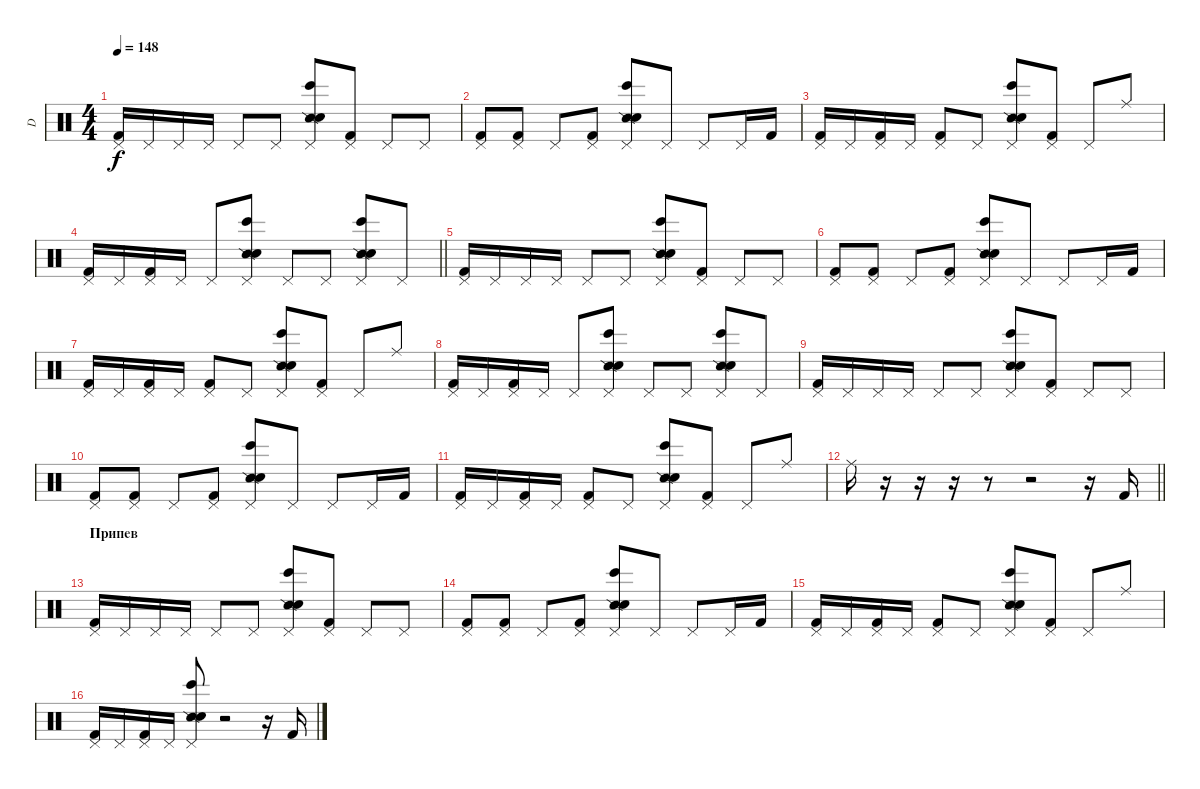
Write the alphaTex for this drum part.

\track ("D" "D") {instrument percussion}
\staff {score}
\articulation defaults
\ts (4 4)
\tempo 148
\clef neutral
\ks c
("Kick (hit) 2" "Pedal Hi-Hat (hit)").16{dy f} "Pedal Hi-Hat (hit)".16 "Pedal Hi-Hat (hit)".16 "Pedal Hi-Hat (hit)".16 "Pedal Hi-Hat (hit)".8 "Pedal Hi-Hat (hit)".8 ("Bongo High (hit)" "Snare (side stick) 2" "Electric Snare (hit)" "Pedal Hi-Hat (hit)").8 ("Kick (hit) 2" "Pedal Hi-Hat (hit)").8 "Pedal Hi-Hat (hit)".8 "Pedal Hi-Hat (hit)".8 |
("Kick (hit) 2" "Pedal Hi-Hat (hit)").8 ("Kick (hit) 2" "Pedal Hi-Hat (hit)").8 "Pedal Hi-Hat (hit)".8 ("Kick (hit) 2" "Pedal Hi-Hat (hit)").8 ("Bongo High (hit)" "Snare (side stick) 2" "Electric Snare (hit)" "Pedal Hi-Hat (hit)").8 "Pedal Hi-Hat (hit)".8 "Pedal Hi-Hat (hit)".8 "Pedal Hi-Hat (hit)".16 "Kick (hit) 2".16 |
("Kick (hit) 2" "Pedal Hi-Hat (hit)").16 "Pedal Hi-Hat (hit)".16 ("Kick (hit) 2" "Pedal Hi-Hat (hit)").16 "Pedal Hi-Hat (hit)".16 ("Kick (hit) 2" "Pedal Hi-Hat (hit)").8 "Pedal Hi-Hat (hit)".8 ("Bongo High (hit)" "Snare (side stick) 2" "Electric Snare (hit)" "Pedal Hi-Hat (hit)").8 ("Kick (hit) 2" "Pedal Hi-Hat (hit)").8 "Pedal Hi-Hat (hit)".8 "Ride (middle)".8 |
\barLineRight lightlight
("Kick (hit) 2" "Pedal Hi-Hat (hit)").16 "Pedal Hi-Hat (hit)".16 ("Kick (hit) 2" "Pedal Hi-Hat (hit)").16 "Pedal Hi-Hat (hit)".16 "Pedal Hi-Hat (hit)".8 ("Bongo High (hit)" "Snare (side stick) 2" "Electric Snare (hit)" "Pedal Hi-Hat (hit)").8 "Pedal Hi-Hat (hit)".8 "Pedal Hi-Hat (hit)".8 ("Bongo High (hit)" "Snare (side stick) 2" "Electric Snare (hit)" "Pedal Hi-Hat (hit)").8 "Pedal Hi-Hat (hit)".8 |
("Kick (hit) 2" "Pedal Hi-Hat (hit)").16 "Pedal Hi-Hat (hit)".16 "Pedal Hi-Hat (hit)".16 "Pedal Hi-Hat (hit)".16 "Pedal Hi-Hat (hit)".8 "Pedal Hi-Hat (hit)".8 ("Bongo High (hit)" "Snare (side stick) 2" "Electric Snare (hit)" "Pedal Hi-Hat (hit)").8 ("Kick (hit) 2" "Pedal Hi-Hat (hit)").8 "Pedal Hi-Hat (hit)".8 "Pedal Hi-Hat (hit)".8 |
("Kick (hit) 2" "Pedal Hi-Hat (hit)").8 ("Kick (hit) 2" "Pedal Hi-Hat (hit)").8 "Pedal Hi-Hat (hit)".8 ("Kick (hit) 2" "Pedal Hi-Hat (hit)").8 ("Bongo High (hit)" "Snare (side stick) 2" "Electric Snare (hit)" "Pedal Hi-Hat (hit)").8 "Pedal Hi-Hat (hit)".8 "Pedal Hi-Hat (hit)".8 "Pedal Hi-Hat (hit)".16 "Kick (hit) 2".16 |
("Kick (hit) 2" "Pedal Hi-Hat (hit)").16 "Pedal Hi-Hat (hit)".16 ("Kick (hit) 2" "Pedal Hi-Hat (hit)").16 "Pedal Hi-Hat (hit)".16 ("Kick (hit) 2" "Pedal Hi-Hat (hit)").8 "Pedal Hi-Hat (hit)".8 ("Bongo High (hit)" "Snare (side stick) 2" "Electric Snare (hit)" "Pedal Hi-Hat (hit)").8 ("Kick (hit) 2" "Pedal Hi-Hat (hit)").8 "Pedal Hi-Hat (hit)".8 "Ride (middle)".8 |
("Kick (hit) 2" "Pedal Hi-Hat (hit)").16 "Pedal Hi-Hat (hit)".16 ("Kick (hit) 2" "Pedal Hi-Hat (hit)").16 "Pedal Hi-Hat (hit)".16 "Pedal Hi-Hat (hit)".8 ("Bongo High (hit)" "Snare (side stick) 2" "Electric Snare (hit)" "Pedal Hi-Hat (hit)").8 "Pedal Hi-Hat (hit)".8 "Pedal Hi-Hat (hit)".8 ("Bongo High (hit)" "Snare (side stick) 2" "Electric Snare (hit)" "Pedal Hi-Hat (hit)").8 "Pedal Hi-Hat (hit)".8 |
("Kick (hit) 2" "Pedal Hi-Hat (hit)").16 "Pedal Hi-Hat (hit)".16 "Pedal Hi-Hat (hit)".16 "Pedal Hi-Hat (hit)".16 "Pedal Hi-Hat (hit)".8 "Pedal Hi-Hat (hit)".8 ("Bongo High (hit)" "Snare (side stick) 2" "Electric Snare (hit)" "Pedal Hi-Hat (hit)").8 ("Kick (hit) 2" "Pedal Hi-Hat (hit)").8 "Pedal Hi-Hat (hit)".8 "Pedal Hi-Hat (hit)".8 |
("Kick (hit) 2" "Pedal Hi-Hat (hit)").8 ("Kick (hit) 2" "Pedal Hi-Hat (hit)").8 "Pedal Hi-Hat (hit)".8 ("Kick (hit) 2" "Pedal Hi-Hat (hit)").8 ("Bongo High (hit)" "Snare (side stick) 2" "Electric Snare (hit)" "Pedal Hi-Hat (hit)").8 "Pedal Hi-Hat (hit)".8 "Pedal Hi-Hat (hit)".8 "Pedal Hi-Hat (hit)".16 "Kick (hit) 2".16 |
("Kick (hit) 2" "Pedal Hi-Hat (hit)").16 "Pedal Hi-Hat (hit)".16 ("Kick (hit) 2" "Pedal Hi-Hat (hit)").16 "Pedal Hi-Hat (hit)".16 ("Kick (hit) 2" "Pedal Hi-Hat (hit)").8 "Pedal Hi-Hat (hit)".8 ("Bongo High (hit)" "Snare (side stick) 2" "Electric Snare (hit)" "Pedal Hi-Hat (hit)").8 ("Kick (hit) 2" "Pedal Hi-Hat (hit)").8 "Pedal Hi-Hat (hit)".8 "Ride (middle)".8 |
\barLineRight lightlight "Ride (middle)".16
r.16 r.16 r.16 r.8 r.2 r.16 "Kick (hit) 2".16 |
\section ("" "Припев")
("Kick (hit) 2" "Pedal Hi-Hat (hit)").16 "Pedal Hi-Hat (hit)".16 "Pedal Hi-Hat (hit)".16 "Pedal Hi-Hat (hit)".16 "Pedal Hi-Hat (hit)".8 "Pedal Hi-Hat (hit)".8 ("Bongo High (hit)" "Snare (side stick) 2" "Electric Snare (hit)" "Pedal Hi-Hat (hit)").8 ("Kick (hit) 2" "Pedal Hi-Hat (hit)").8 "Pedal Hi-Hat (hit)".8 "Pedal Hi-Hat (hit)".8 |
("Kick (hit) 2" "Pedal Hi-Hat (hit)").8 ("Kick (hit) 2" "Pedal Hi-Hat (hit)").8 "Pedal Hi-Hat (hit)".8 ("Kick (hit) 2" "Pedal Hi-Hat (hit)").8 ("Bongo High (hit)" "Snare (side stick) 2" "Electric Snare (hit)" "Pedal Hi-Hat (hit)").8 "Pedal Hi-Hat (hit)".8 "Pedal Hi-Hat (hit)".8 "Pedal Hi-Hat (hit)".16 "Kick (hit) 2".16 |
("Kick (hit) 2" "Pedal Hi-Hat (hit)").16 "Pedal Hi-Hat (hit)".16 ("Kick (hit) 2" "Pedal Hi-Hat (hit)").16 "Pedal Hi-Hat (hit)".16 ("Kick (hit) 2" "Pedal Hi-Hat (hit)").8 "Pedal Hi-Hat (hit)".8 ("Bongo High (hit)" "Snare (side stick) 2" "Electric Snare (hit)" "Pedal Hi-Hat (hit)").8 ("Kick (hit) 2" "Pedal Hi-Hat (hit)").8 "Pedal Hi-Hat (hit)".8 "Ride (middle)".8 |
("Kick (hit) 2" "Pedal Hi-Hat (hit)").16 "Pedal Hi-Hat (hit)".16 ("Kick (hit) 2" "Pedal Hi-Hat (hit)").16 "Pedal Hi-Hat (hit)".16 ("Bongo High (hit)" "Snare (side stick) 2" "Electric Snare (hit)" "Pedal Hi-Hat (hit)").8 r.2 r.16 "Kick (hit) 2".16
